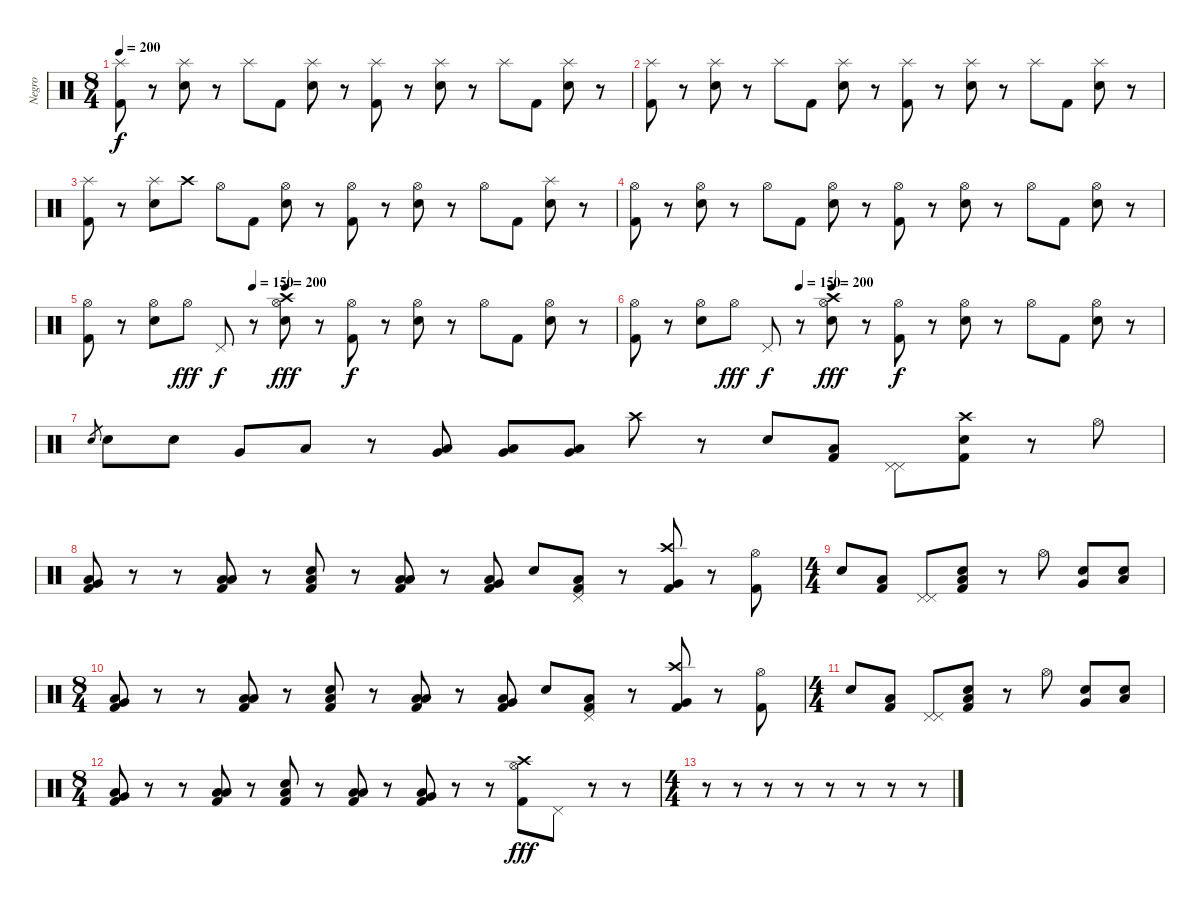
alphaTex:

\track ("Negro" "Negro") {instrument percussion}
\staff {score}
\articulation defaults
\ts (8 4)
\tempo 200
\clef neutral
\ks c
("Splash (hit)" "Kick (hit) 2").8{dy f} r.8 ("Splash (hit)" "Electric Snare (hit)").8 r.8 "Splash (hit)".8 "Kick (hit) 2".8 ("Splash (hit)" "Electric Snare (hit)").8 r.8 ("Splash (hit)" "Kick (hit) 2").8 r.8 ("Splash (hit)" "Electric Snare (hit)").8 r.8 "Splash (hit)".8 "Kick (hit) 2".8 ("Splash (hit)" "Electric Snare (hit)").8 r.8 |
("Splash (hit)" "Kick (hit) 2").8 r.8 ("Splash (hit)" "Electric Snare (hit)").8 r.8 "Splash (hit)".8 "Kick (hit) 2".8 ("Splash (hit)" "Electric Snare (hit)").8 r.8 ("Splash (hit)" "Kick (hit) 2").8 r.8 ("Splash (hit)" "Electric Snare (hit)").8 r.8 "Splash (hit)".8 "Kick (hit) 2".8 ("Splash (hit)" "Electric Snare (hit)").8 r.8 |
("Splash (hit)" "Kick (hit) 2").8 r.8 ("Splash (hit)" "Electric Snare (hit)").8 "Crash high (hit)".8 "Hi-Hat (open)".8 "Kick (hit) 2".8 ("Hi-Hat (open)" "Electric Snare (hit)").8 r.8 ("Hi-Hat (open)" "Kick (hit) 2").8 r.8 ("Hi-Hat (open)" "Electric Snare (hit)").8 r.8 "Hi-Hat (open)".8 "Kick (hit) 2".8 ("Splash (hit)" "Electric Snare (hit)").8 r.8 |
("Hi-Hat (open)" "Kick (hit) 2").8 r.8 ("Hi-Hat (open)" "Electric Snare (hit)").8 r.8 "Hi-Hat (open)".8 "Kick (hit) 2".8 ("Hi-Hat (open)" "Electric Snare (hit)").8 r.8 ("Hi-Hat (open)" "Kick (hit) 2").8 r.8 ("Hi-Hat (open)" "Electric Snare (hit)").8 r.8 "Hi-Hat (open)".8 "Kick (hit) 2".8 ("Hi-Hat (open)" "Electric Snare (hit)").8 r.8 |
\tempo (150 0.3125)
\tempo (200 0.375)
("Hi-Hat (open)" "Kick (hit) 2").8 r.8 ("Hi-Hat (open)" "Electric Snare (hit)").8 "Hi-Hat (open)".8{dy fff} "Pedal Hi-Hat (hit)".8{dy f} r.8 ("Hi-Hat (open)" "Electric Snare (hit)" "Crash high (hit)").8{dy fff} r.8 ("Hi-Hat (open)" "Kick (hit) 2").8{dy f} r.8 ("Hi-Hat (open)" "Electric Snare (hit)").8 r.8 "Hi-Hat (open)".8 "Kick (hit) 2".8 ("Hi-Hat (open)" "Electric Snare (hit)").8 r.8 |
\tempo (150 0.3125)
\tempo (200 0.375)
("Hi-Hat (open)" "Kick (hit) 2").8 r.8 ("Hi-Hat (open)" "Electric Snare (hit)").8 "Hi-Hat (open)".8{dy fff} "Pedal Hi-Hat (hit)".8{dy f} r.8 ("Hi-Hat (open)" "Electric Snare (hit)" "Crash high (hit)").8{dy fff} r.8 ("Hi-Hat (open)" "Kick (hit) 2").8{dy f} r.8 ("Hi-Hat (open)" "Electric Snare (hit)").8 r.8 "Hi-Hat (open)".8 "Kick (hit) 2".8 ("Hi-Hat (open)" "Electric Snare (hit)").8 r.8 |
"Electric Snare (hit)".8{gr} "Electric Snare (hit)".8 "Electric Snare (hit)".8 "Very Low Tom (hit)".8 "Low Floor Tom (hit)".8 r.8 ("Very Low Tom (hit)" "Low Floor Tom (hit)").8 ("Very Low Tom (hit)" "Low Floor Tom (hit)").8 ("Very Low Tom (hit)" "Low Floor Tom (hit)").8 "Crash high (hit)".8 r.8 "Electric Snare (hit)".8 ("Kick (hit) 2" "Low Floor Tom (hit)").8 ("Pedal Hi-Hat (hit)" "Pedal Hi-Hat (hit)").8 ("Electric Snare (hit)" "Crash high (hit)" "Kick (hit) 2").8 r.8 "Hi-Hat (open)".8 |
("Kick (hit) 2" "Very Low Tom (hit)" "Low Floor Tom (hit)").8 r.8 r.8 ("Kick (hit) 2" "Low Tom (hit)" "Low Floor Tom (hit)").8 r.8 ("Kick (hit) 2" "Electric Snare (hit)" "Low Floor Tom (hit)").8 r.8 ("Kick (hit) 2" "Low Tom (hit)" "Low Floor Tom (hit)").8 r.8 ("Kick (hit) 2" "Low Tom (hit)" "Very Low Tom (hit)").8 "Electric Snare (hit)".8 ("Kick (hit) 2" "Pedal Hi-Hat (hit)" "Low Floor Tom (hit)").8 r.8 ("Kick (hit) 2" "Crash high (hit)" "Very Low Tom (hit)").8 r.8 ("Kick (hit) 2" "Hi-Hat (open)").8 |
\ts (4 4)
"Electric Snare (hit)".8 ("Kick (hit) 2" "Low Floor Tom (hit)").8 ("Pedal Hi-Hat (hit)" "Pedal Hi-Hat (hit)").8 ("Electric Snare (hit)" "Low Tom (hit)" "Kick (hit) 2").8 r.8 "Hi-Hat (open)".8 ("Electric Snare (hit)" "Very Low Tom (hit)").8 ("Electric Snare (hit)" "Low Floor Tom (hit)").8 |
\ts (8 4)
("Kick (hit) 2" "Very Low Tom (hit)" "Low Floor Tom (hit)").8 r.8 r.8 ("Kick (hit) 2" "Low Tom (hit)" "Low Floor Tom (hit)").8 r.8 ("Kick (hit) 2" "Electric Snare (hit)" "Low Floor Tom (hit)").8 r.8 ("Kick (hit) 2" "Low Tom (hit)" "Low Floor Tom (hit)").8 r.8 ("Kick (hit) 2" "Low Tom (hit)" "Very Low Tom (hit)").8 "Electric Snare (hit)".8 ("Kick (hit) 2" "Pedal Hi-Hat (hit)" "Low Floor Tom (hit)").8 r.8 ("Kick (hit) 2" "Crash high (hit)" "Very Low Tom (hit)").8 r.8 ("Kick (hit) 2" "Hi-Hat (open)").8 |
\ts (4 4)
"Electric Snare (hit)".8 ("Kick (hit) 2" "Low Floor Tom (hit)").8 ("Pedal Hi-Hat (hit)" "Pedal Hi-Hat (hit)").8 ("Electric Snare (hit)" "Low Tom (hit)" "Kick (hit) 2").8 r.8 "Hi-Hat (open)".8 ("Electric Snare (hit)" "Very Low Tom (hit)").8 ("Electric Snare (hit)" "Low Floor Tom (hit)").8 |
\ts (8 4)
("Kick (hit) 2" "Very Low Tom (hit)" "Low Floor Tom (hit)").8 r.8 r.8 ("Kick (hit) 2" "Low Tom (hit)" "Low Floor Tom (hit)").8 r.8 ("Kick (hit) 2" "Electric Snare (hit)" "Low Floor Tom (hit)").8 r.8 ("Kick (hit) 2" "Low Tom (hit)" "Low Floor Tom (hit)").8 r.8 ("Kick (hit) 2" "Low Tom (hit)" "Very Low Tom (hit)").8 r.8 r.8 ("Crash high (hit)" "Hi-Hat (open)" "Kick (hit) 2").8{dy fff} "Pedal Hi-Hat (hit)".8 r.8 r.8 |
\ts (4 4)
r.8 r.8 r.8 r.8 r.8 r.8 r.8 r.8
